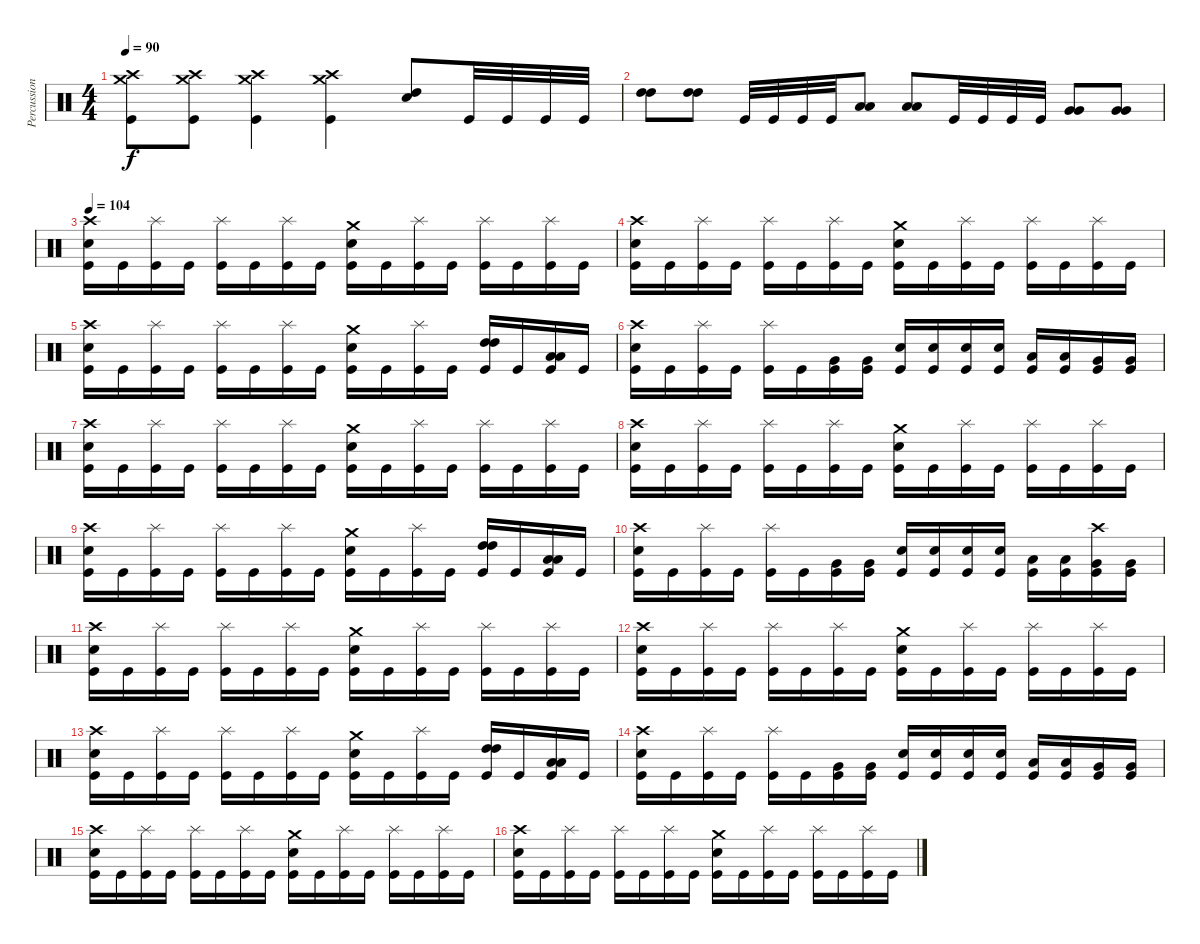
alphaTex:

\track ("Percussion" "Percussion") {instrument percussion}
\staff {score}
\articulation defaults
\ts (4 4)
\tempo 90
\clef neutral
\ks c
("Crash medium (hit)" "Crash high (hit)" "Kick (hit)").8{dy f} ("Crash medium (hit)" "Crash high (hit)" "Kick (hit)").8 ("Crash medium (hit)" "Crash high (hit)" "Kick (hit)").4 ("Crash medium (hit)" "Crash high (hit)" "Kick (hit)").4 ("High Tom (hit)" "Electric Snare (hit)").8 "Kick (hit)".32 "Kick (hit)".32 "Kick (hit)".32 "Kick (hit)".32 |
("High Tom (hit)" "High Tom (hit)").8 ("High Tom (hit)" "High Tom (hit)").8 "Kick (hit)".32 "Kick (hit)".32 "Kick (hit)".32 "Kick (hit)".32 ("Low Tom (hit)" "Low Tom (hit)").8 ("Low Tom (hit)" "Low Tom (hit)").8 "Kick (hit)".32 "Kick (hit)".32 "Kick (hit)".32 "Kick (hit)".32 ("Very Low Tom (hit)" "Very Low Tom (hit)").8 ("Very Low Tom (hit)" "Very Low Tom (hit)").8 |
\tempo 104
("Crash high (hit)" "Electric Snare (hit)" "Kick (hit)").16 "Kick (hit)".16 ("Splash (hit)" "Kick (hit)").16 "Kick (hit)".16 ("Splash (hit)" "Kick (hit)").16 "Kick (hit)".16 ("Splash (hit)" "Kick (hit)").16 "Kick (hit)".16 ("Crash medium (hit)" "Electric Snare (hit)" "Kick (hit)").16 "Kick (hit)".16 ("Splash (hit)" "Kick (hit)").16 "Kick (hit)".16 ("Splash (hit)" "Kick (hit)").16 "Kick (hit)".16 ("Splash (hit)" "Kick (hit)").16 "Kick (hit)".16 |
("Crash high (hit)" "Electric Snare (hit)" "Kick (hit)").16 "Kick (hit)".16 ("Splash (hit)" "Kick (hit)").16 "Kick (hit)".16 ("Splash (hit)" "Kick (hit)").16 "Kick (hit)".16 ("Splash (hit)" "Kick (hit)").16 "Kick (hit)".16 ("Crash medium (hit)" "Electric Snare (hit)" "Kick (hit)").16 "Kick (hit)".16 ("Splash (hit)" "Kick (hit)").16 "Kick (hit)".16 ("Splash (hit)" "Kick (hit)").16 "Kick (hit)".16 ("Splash (hit)" "Kick (hit)").16 "Kick (hit)".16 |
("Crash high (hit)" "Electric Snare (hit)" "Kick (hit)").16 "Kick (hit)".16 ("Splash (hit)" "Kick (hit)").16 "Kick (hit)".16 ("Splash (hit)" "Kick (hit)").16 "Kick (hit)".16 ("Splash (hit)" "Kick (hit)").16 "Kick (hit)".16 ("Crash medium (hit)" "Electric Snare (hit)" "Kick (hit)").16 "Kick (hit)".16 ("Splash (hit)" "Kick (hit)").16 "Kick (hit)".16 ("High Tom (hit)" "High Tom (hit)" "Kick (hit)").16 "Kick (hit)".16 ("Low Tom (hit)" "Low Tom (hit)" "Kick (hit)").16 "Kick (hit)".16 |
("Crash high (hit)" "Electric Snare (hit)" "Kick (hit)").16 "Kick (hit)".16 ("Splash (hit)" "Kick (hit)").16 "Kick (hit)".16 ("Splash (hit)" "Kick (hit)").16 "Kick (hit)".16 ("Very Low Tom (hit)" "Kick (hit)").16 ("Very Low Tom (hit)" "Kick (hit)").16 ("Electric Snare (hit)" "Kick (hit)").16 ("Electric Snare (hit)" "Kick (hit)").16 ("Electric Snare (hit)" "Kick (hit)").16 ("Electric Snare (hit)" "Kick (hit)").16 ("Low Tom (hit)" "Kick (hit)").16 ("Low Tom (hit)" "Kick (hit)").16 ("Very Low Tom (hit)" "Kick (hit)").16 ("Very Low Tom (hit)" "Kick (hit)").16 |
("Crash high (hit)" "Electric Snare (hit)" "Kick (hit)").16 "Kick (hit)".16 ("Splash (hit)" "Kick (hit)").16 "Kick (hit)".16 ("Splash (hit)" "Kick (hit)").16 "Kick (hit)".16 ("Splash (hit)" "Kick (hit)").16 "Kick (hit)".16 ("Crash medium (hit)" "Electric Snare (hit)" "Kick (hit)").16 "Kick (hit)".16 ("Splash (hit)" "Kick (hit)").16 "Kick (hit)".16 ("Splash (hit)" "Kick (hit)").16 "Kick (hit)".16 ("Splash (hit)" "Kick (hit)").16 "Kick (hit)".16 |
("Crash high (hit)" "Electric Snare (hit)" "Kick (hit)").16 "Kick (hit)".16 ("Splash (hit)" "Kick (hit)").16 "Kick (hit)".16 ("Splash (hit)" "Kick (hit)").16 "Kick (hit)".16 ("Splash (hit)" "Kick (hit)").16 "Kick (hit)".16 ("Crash medium (hit)" "Electric Snare (hit)" "Kick (hit)").16 "Kick (hit)".16 ("Splash (hit)" "Kick (hit)").16 "Kick (hit)".16 ("Splash (hit)" "Kick (hit)").16 "Kick (hit)".16 ("Splash (hit)" "Kick (hit)").16 "Kick (hit)".16 |
("Crash high (hit)" "Electric Snare (hit)" "Kick (hit)").16 "Kick (hit)".16 ("Splash (hit)" "Kick (hit)").16 "Kick (hit)".16 ("Splash (hit)" "Kick (hit)").16 "Kick (hit)".16 ("Splash (hit)" "Kick (hit)").16 "Kick (hit)".16 ("Crash medium (hit)" "Electric Snare (hit)" "Kick (hit)").16 "Kick (hit)".16 ("Splash (hit)" "Kick (hit)").16 "Kick (hit)".16 ("High Tom (hit)" "High Tom (hit)" "Kick (hit)").16 "Kick (hit)".16 ("Low Tom (hit)" "Low Tom (hit)" "Kick (hit)").16 "Kick (hit)".16 |
("Crash high (hit)" "Electric Snare (hit)" "Kick (hit)").16 "Kick (hit)".16 ("Splash (hit)" "Kick (hit)").16 "Kick (hit)".16 ("Splash (hit)" "Kick (hit)").16 "Kick (hit)".16 ("Very Low Tom (hit)" "Kick (hit)").16 ("Very Low Tom (hit)" "Kick (hit)").16 ("Electric Snare (hit)" "Kick (hit)").16 ("Electric Snare (hit)" "Kick (hit)").16 ("Electric Snare (hit)" "Kick (hit)").16 ("Electric Snare (hit)" "Kick (hit)").16 ("Low Tom (hit)" "Kick (hit)").16 ("Low Tom (hit)" "Kick (hit)").16 ("Crash high (hit)" "Very Low Tom (hit)" "Kick (hit)").16 ("Very Low Tom (hit)" "Kick (hit)").16 |
("Crash high (hit)" "Electric Snare (hit)" "Kick (hit)").16 "Kick (hit)".16 ("Splash (hit)" "Kick (hit)").16 "Kick (hit)".16 ("Splash (hit)" "Kick (hit)").16 "Kick (hit)".16 ("Splash (hit)" "Kick (hit)").16 "Kick (hit)".16 ("Crash medium (hit)" "Electric Snare (hit)" "Kick (hit)").16 "Kick (hit)".16 ("Splash (hit)" "Kick (hit)").16 "Kick (hit)".16 ("Splash (hit)" "Kick (hit)").16 "Kick (hit)".16 ("Splash (hit)" "Kick (hit)").16 "Kick (hit)".16 |
("Crash high (hit)" "Electric Snare (hit)" "Kick (hit)").16 "Kick (hit)".16 ("Splash (hit)" "Kick (hit)").16 "Kick (hit)".16 ("Splash (hit)" "Kick (hit)").16 "Kick (hit)".16 ("Splash (hit)" "Kick (hit)").16 "Kick (hit)".16 ("Crash medium (hit)" "Electric Snare (hit)" "Kick (hit)").16 "Kick (hit)".16 ("Splash (hit)" "Kick (hit)").16 "Kick (hit)".16 ("Splash (hit)" "Kick (hit)").16 "Kick (hit)".16 ("Splash (hit)" "Kick (hit)").16 "Kick (hit)".16 |
("Crash high (hit)" "Electric Snare (hit)" "Kick (hit)").16 "Kick (hit)".16 ("Splash (hit)" "Kick (hit)").16 "Kick (hit)".16 ("Splash (hit)" "Kick (hit)").16 "Kick (hit)".16 ("Splash (hit)" "Kick (hit)").16 "Kick (hit)".16 ("Crash medium (hit)" "Electric Snare (hit)" "Kick (hit)").16 "Kick (hit)".16 ("Splash (hit)" "Kick (hit)").16 "Kick (hit)".16 ("High Tom (hit)" "High Tom (hit)" "Kick (hit)").16 "Kick (hit)".16 ("Low Tom (hit)" "Low Tom (hit)" "Kick (hit)").16 "Kick (hit)".16 |
("Crash high (hit)" "Electric Snare (hit)" "Kick (hit)").16 "Kick (hit)".16 ("Splash (hit)" "Kick (hit)").16 "Kick (hit)".16 ("Splash (hit)" "Kick (hit)").16 "Kick (hit)".16 ("Very Low Tom (hit)" "Kick (hit)").16 ("Very Low Tom (hit)" "Kick (hit)").16 ("Electric Snare (hit)" "Kick (hit)").16 ("Electric Snare (hit)" "Kick (hit)").16 ("Electric Snare (hit)" "Kick (hit)").16 ("Electric Snare (hit)" "Kick (hit)").16 ("Low Tom (hit)" "Kick (hit)").16 ("Low Tom (hit)" "Kick (hit)").16 ("Very Low Tom (hit)" "Kick (hit)").16 ("Very Low Tom (hit)" "Kick (hit)").16 |
("Crash high (hit)" "Electric Snare (hit)" "Kick (hit)").16 "Kick (hit)".16 ("Splash (hit)" "Kick (hit)").16 "Kick (hit)".16 ("Splash (hit)" "Kick (hit)").16 "Kick (hit)".16 ("Splash (hit)" "Kick (hit)").16 "Kick (hit)".16 ("Crash medium (hit)" "Electric Snare (hit)" "Kick (hit)").16 "Kick (hit)".16 ("Splash (hit)" "Kick (hit)").16 "Kick (hit)".16 ("Splash (hit)" "Kick (hit)").16 "Kick (hit)".16 ("Splash (hit)" "Kick (hit)").16 "Kick (hit)".16 |
("Crash high (hit)" "Electric Snare (hit)" "Kick (hit)").16 "Kick (hit)".16 ("Splash (hit)" "Kick (hit)").16 "Kick (hit)".16 ("Splash (hit)" "Kick (hit)").16 "Kick (hit)".16 ("Splash (hit)" "Kick (hit)").16 "Kick (hit)".16 ("Crash medium (hit)" "Electric Snare (hit)" "Kick (hit)").16 "Kick (hit)".16 ("Splash (hit)" "Kick (hit)").16 "Kick (hit)".16 ("Splash (hit)" "Kick (hit)").16 "Kick (hit)".16 ("Splash (hit)" "Kick (hit)").16 "Kick (hit)".16
